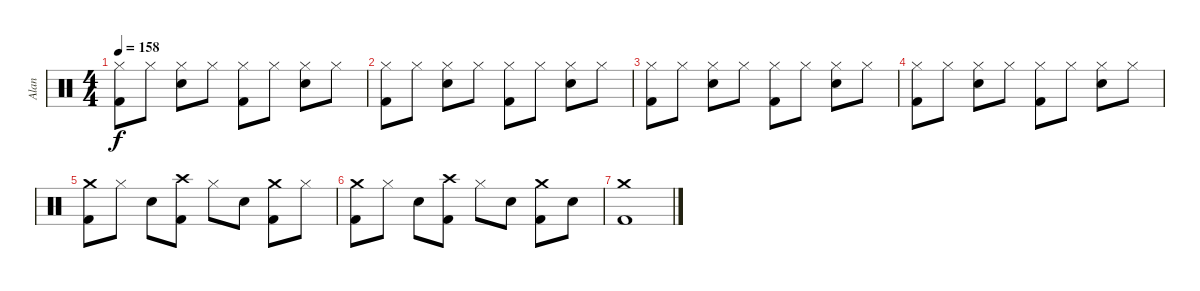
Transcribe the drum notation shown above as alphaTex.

\track ("Alan" "Alan") {instrument percussion}
\staff {score}
\articulation defaults
\ts (4 4)
\tempo 158
\clef neutral
\ks c
("Kick (hit) 2" "Hi-Hat (closed)").8{dy f} "Hi-Hat (closed)".8 ("Hi-Hat (closed)" "Electric Snare (hit)").8 "Hi-Hat (closed)".8 ("Kick (hit) 2" "Hi-Hat (closed)").8 "Hi-Hat (closed)".8 ("Hi-Hat (closed)" "Electric Snare (hit)").8 "Hi-Hat (closed)".8 |
("Kick (hit) 2" "Hi-Hat (closed)").8 "Hi-Hat (closed)".8 ("Hi-Hat (closed)" "Electric Snare (hit)").8 "Hi-Hat (closed)".8 ("Kick (hit) 2" "Hi-Hat (closed)").8 "Hi-Hat (closed)".8 ("Hi-Hat (closed)" "Electric Snare (hit)").8 "Hi-Hat (closed)".8 |
("Kick (hit) 2" "Hi-Hat (closed)").8 "Hi-Hat (closed)".8 ("Hi-Hat (closed)" "Electric Snare (hit)").8 "Hi-Hat (closed)".8 ("Kick (hit) 2" "Hi-Hat (closed)").8 "Hi-Hat (closed)".8 ("Hi-Hat (closed)" "Electric Snare (hit)").8 "Hi-Hat (closed)".8 |
("Kick (hit) 2" "Hi-Hat (closed)").8 "Hi-Hat (closed)".8 ("Hi-Hat (closed)" "Electric Snare (hit)").8 "Hi-Hat (closed)".8 ("Kick (hit) 2" "Hi-Hat (closed)").8 "Hi-Hat (closed)".8 ("Hi-Hat (closed)" "Electric Snare (hit)").8 "Hi-Hat (closed)".8 |
("Kick (hit) 2" "Crash medium (hit)").8 "Hi-Hat (closed)".8 "Electric Snare (hit)".8 ("Kick (hit) 2" "Crash high (hit)").8 "Hi-Hat (closed)".8 "Electric Snare (hit)".8 ("Kick (hit) 2" "Crash medium (hit)").8 "Hi-Hat (closed)".8 |
("Kick (hit) 2" "Crash medium (hit)").8 "Hi-Hat (closed)".8 "Electric Snare (hit)".8 ("Kick (hit) 2" "Crash high (hit)").8 "Hi-Hat (closed)".8 "Electric Snare (hit)".8 ("Kick (hit) 2" "Crash medium (hit)").8 "Electric Snare (hit)".8 |
("Kick (hit) 2" "Crash medium (hit)").1
